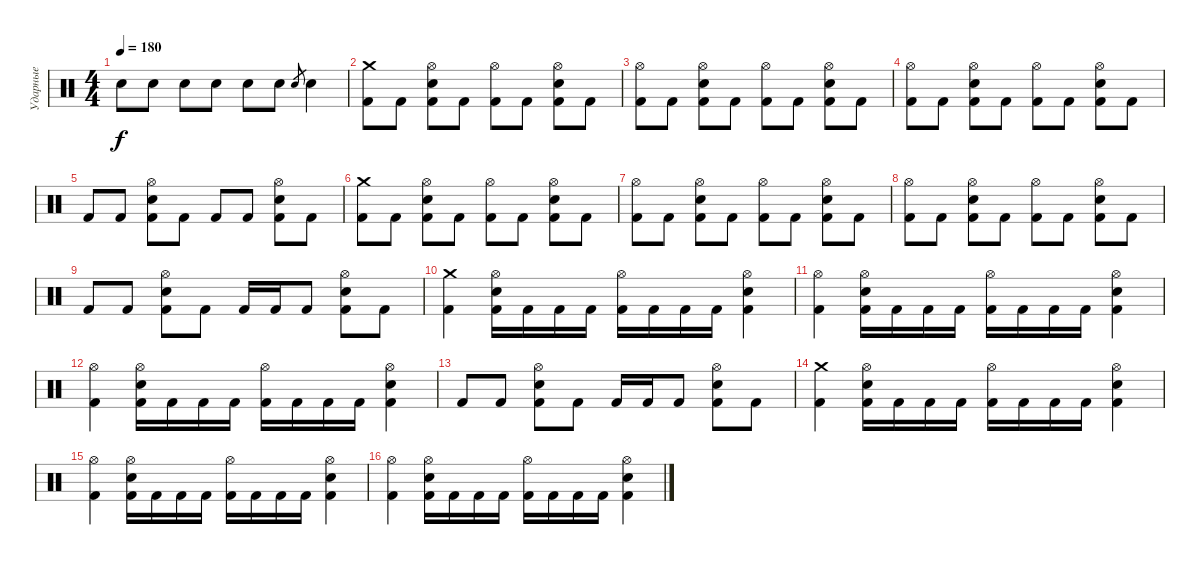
\track ("Ударные" "Ударные") {instrument percussion}
\staff {score}
\articulation defaults
\ts (4 4)
\tempo 180
\clef neutral
\ks c "Electric Snare (hit)".8{dy f} "Electric Snare (hit)".8 "Electric Snare (hit)".8 "Electric Snare (hit)".8 "Electric Snare (hit)".8 "Electric Snare (hit)".8 "Electric Snare (hit)".8{gr} "Electric Snare (hit)".4
|
("Kick (hit) 2" "Crash medium (hit)").8 "Kick (hit) 2".8 ("Kick (hit) 2" "Hi-Hat (open)" "Electric Snare (hit)").8 "Kick (hit) 2".8 ("Kick (hit) 2" "Hi-Hat (open)").8 "Kick (hit) 2".8 ("Kick (hit) 2" "Hi-Hat (open)" "Electric Snare (hit)").8 "Kick (hit) 2".8 |
("Kick (hit) 2" "Hi-Hat (open)").8 "Kick (hit) 2".8 ("Kick (hit) 2" "Hi-Hat (open)" "Electric Snare (hit)").8 "Kick (hit) 2".8 ("Kick (hit) 2" "Hi-Hat (open)").8 "Kick (hit) 2".8 ("Kick (hit) 2" "Hi-Hat (open)" "Electric Snare (hit)").8 "Kick (hit) 2".8 |
("Kick (hit) 2" "Hi-Hat (open)").8 "Kick (hit) 2".8 ("Kick (hit) 2" "Hi-Hat (open)" "Electric Snare (hit)").8 "Kick (hit) 2".8 ("Kick (hit) 2" "Hi-Hat (open)").8 "Kick (hit) 2".8 ("Kick (hit) 2" "Hi-Hat (open)" "Electric Snare (hit)").8 "Kick (hit) 2".8 |
"Kick (hit) 2".8 "Kick (hit) 2".8 ("Kick (hit) 2" "Hi-Hat (open)" "Electric Snare (hit)").8 "Kick (hit) 2".8 "Kick (hit) 2".8 "Kick (hit) 2".8 ("Kick (hit) 2" "Hi-Hat (open)" "Electric Snare (hit)").8 "Kick (hit) 2".8 |
("Kick (hit) 2" "Crash medium (hit)").8 "Kick (hit) 2".8 ("Kick (hit) 2" "Hi-Hat (open)" "Electric Snare (hit)").8 "Kick (hit) 2".8 ("Kick (hit) 2" "Hi-Hat (open)").8 "Kick (hit) 2".8 ("Kick (hit) 2" "Hi-Hat (open)" "Electric Snare (hit)").8 "Kick (hit) 2".8 |
("Kick (hit) 2" "Hi-Hat (open)").8 "Kick (hit) 2".8 ("Kick (hit) 2" "Hi-Hat (open)" "Electric Snare (hit)").8 "Kick (hit) 2".8 ("Kick (hit) 2" "Hi-Hat (open)").8 "Kick (hit) 2".8 ("Kick (hit) 2" "Hi-Hat (open)" "Electric Snare (hit)").8 "Kick (hit) 2".8 |
("Kick (hit) 2" "Hi-Hat (open)").8 "Kick (hit) 2".8 ("Kick (hit) 2" "Hi-Hat (open)" "Electric Snare (hit)").8 "Kick (hit) 2".8 ("Kick (hit) 2" "Hi-Hat (open)").8 "Kick (hit) 2".8 ("Kick (hit) 2" "Hi-Hat (open)" "Electric Snare (hit)").8 "Kick (hit) 2".8 |
"Kick (hit) 2".8 "Kick (hit) 2".8 ("Kick (hit) 2" "Hi-Hat (open)" "Electric Snare (hit)").8 "Kick (hit) 2".8 "Kick (hit) 2".16 "Kick (hit) 2".16 "Kick (hit) 2".8 ("Kick (hit) 2" "Hi-Hat (open)" "Electric Snare (hit)").8 "Kick (hit) 2".8 |
("Kick (hit) 2" "Crash medium (hit)").4 ("Kick (hit) 2" "Hi-Hat (open)" "Electric Snare (hit)").16 "Kick (hit) 2".16 "Kick (hit) 2".16 "Kick (hit) 2".16 ("Kick (hit) 2" "Hi-Hat (open)").16 "Kick (hit) 2".16 "Kick (hit) 2".16 "Kick (hit) 2".16 ("Kick (hit) 2" "Hi-Hat (open)" "Electric Snare (hit)").4 |
("Kick (hit) 2" "Hi-Hat (open)").4 ("Kick (hit) 2" "Hi-Hat (open)" "Electric Snare (hit)").16 "Kick (hit) 2".16 "Kick (hit) 2".16 "Kick (hit) 2".16 ("Kick (hit) 2" "Hi-Hat (open)").16 "Kick (hit) 2".16 "Kick (hit) 2".16 "Kick (hit) 2".16 ("Kick (hit) 2" "Hi-Hat (open)" "Electric Snare (hit)").4 |
("Kick (hit) 2" "Hi-Hat (open)").4 ("Kick (hit) 2" "Hi-Hat (open)" "Electric Snare (hit)").16 "Kick (hit) 2".16 "Kick (hit) 2".16 "Kick (hit) 2".16 ("Kick (hit) 2" "Hi-Hat (open)").16 "Kick (hit) 2".16 "Kick (hit) 2".16 "Kick (hit) 2".16 ("Kick (hit) 2" "Hi-Hat (open)" "Electric Snare (hit)").4 |
"Kick (hit) 2".8 "Kick (hit) 2".8 ("Kick (hit) 2" "Hi-Hat (open)" "Electric Snare (hit)").8 "Kick (hit) 2".8 "Kick (hit) 2".16 "Kick (hit) 2".16 "Kick (hit) 2".8 ("Kick (hit) 2" "Hi-Hat (open)" "Electric Snare (hit)").8 "Kick (hit) 2".8 |
("Kick (hit) 2" "Crash medium (hit)").4 ("Kick (hit) 2" "Hi-Hat (open)" "Electric Snare (hit)").16 "Kick (hit) 2".16 "Kick (hit) 2".16 "Kick (hit) 2".16 ("Kick (hit) 2" "Hi-Hat (open)").16 "Kick (hit) 2".16 "Kick (hit) 2".16 "Kick (hit) 2".16 ("Kick (hit) 2" "Hi-Hat (open)" "Electric Snare (hit)").4 |
("Kick (hit) 2" "Hi-Hat (open)").4 ("Kick (hit) 2" "Hi-Hat (open)" "Electric Snare (hit)").16 "Kick (hit) 2".16 "Kick (hit) 2".16 "Kick (hit) 2".16 ("Kick (hit) 2" "Hi-Hat (open)").16 "Kick (hit) 2".16 "Kick (hit) 2".16 "Kick (hit) 2".16 ("Kick (hit) 2" "Hi-Hat (open)" "Electric Snare (hit)").4 |
("Kick (hit) 2" "Hi-Hat (open)").4 ("Kick (hit) 2" "Hi-Hat (open)" "Electric Snare (hit)").16 "Kick (hit) 2".16 "Kick (hit) 2".16 "Kick (hit) 2".16 ("Kick (hit) 2" "Hi-Hat (open)").16 "Kick (hit) 2".16 "Kick (hit) 2".16 "Kick (hit) 2".16 ("Kick (hit) 2" "Hi-Hat (open)" "Electric Snare (hit)").4
